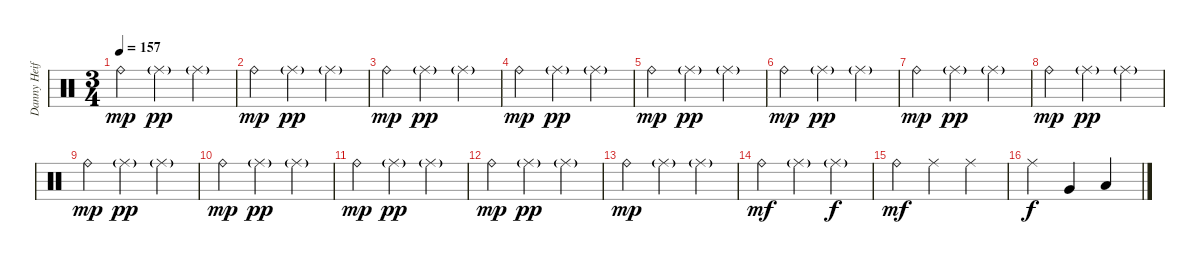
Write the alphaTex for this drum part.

\track ("Danny Heifetz - Drums" "Danny Heif") {instrument percussion}
\staff {score}
\articulation defaults
\ts (3 4)
\tempo 157
\clef neutral
\ks c "Ride (bell)".4{dy mp volume 9} "Ride (middle)"{g}.4{dy pp} "Ride (middle)"{g}.4
|
"Ride (bell)".4{dy mp} "Ride (middle)"{g}.4{dy pp} "Ride (middle)"{g}.4 |
"Ride (bell)".4{dy mp} "Ride (middle)"{g}.4{dy pp} "Ride (middle)"{g}.4 |
"Ride (bell)".4{dy mp} "Ride (middle)"{g}.4{dy pp} "Ride (middle)"{g}.4 |
"Ride (bell)".4{dy mp} "Ride (middle)"{g}.4{dy pp} "Ride (middle)"{g}.4 |
"Ride (bell)".4{dy mp} "Ride (middle)"{g}.4{dy pp} "Ride (middle)"{g}.4 |
"Ride (bell)".4{dy mp} "Ride (middle)"{g}.4{dy pp} "Ride (middle)"{g}.4 |
"Ride (bell)".4{dy mp} "Ride (middle)"{g}.4{dy pp} "Ride (middle)"{g}.4 |
"Ride (bell)".4{dy mp} "Ride (middle)"{g}.4{dy pp} "Ride (middle)"{g}.4 |
"Ride (bell)".4{dy mp} "Ride (middle)"{g}.4{dy pp} "Ride (middle)"{g}.4 |
"Ride (bell)".4{dy mp} "Ride (middle)"{g}.4{dy pp} "Ride (middle)"{g}.4 |
"Ride (bell)".4{dy mp} "Ride (middle)"{g}.4{dy pp} "Ride (middle)"{g}.4 |
"Ride (bell)".4{dy mp} "Ride (middle)"{g}.4 "Ride (middle)"{g}.4 |
"Ride (bell)".4{dy mf} "Ride (middle)"{g}.4 "Ride (middle)"{g}.4{dy f} |
"Ride (bell)".4{dy mf volume 12} "Ride (middle)".4 "Ride (middle)".4 |
"Ride (middle)".4{dy f} "Very Low Tom (hit)".4 "Low Floor Tom (hit)".4
